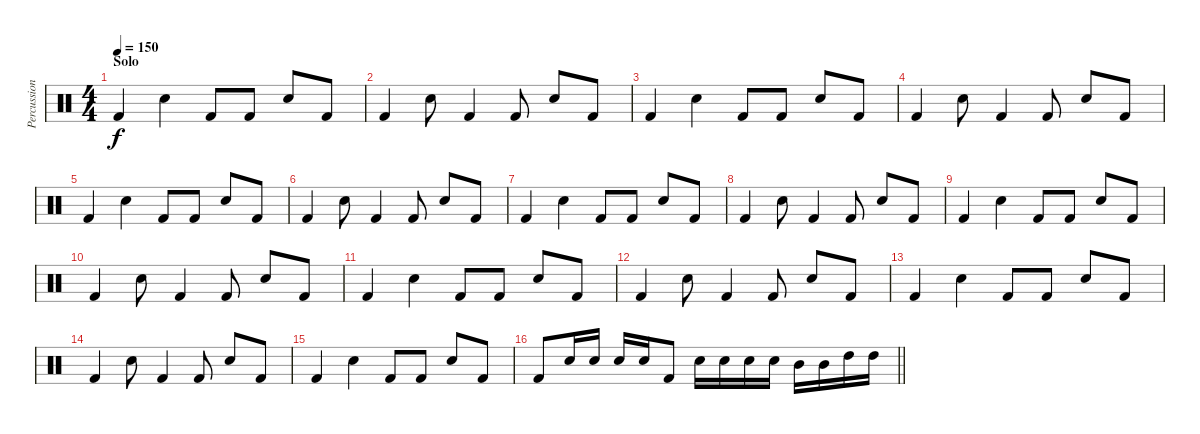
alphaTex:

\track ("Percussion" "Percussion") {instrument percussion}
\staff {score}
\articulation defaults
\ts (4 4)
\section ("" "Solo")
\tempo 150
\clef neutral
\ks c "Kick (hit) 2".4{dy f} "Snare (hit) 2".4 "Kick (hit) 2".8 "Kick (hit) 2".8 "Snare (hit) 2".8 "Kick (hit) 2".8
|
"Kick (hit) 2".4 "Snare (hit) 2".8 "Kick (hit) 2".4 "Kick (hit) 2".8 "Snare (hit) 2".8 "Kick (hit) 2".8 |
"Kick (hit) 2".4 "Snare (hit) 2".4 "Kick (hit) 2".8 "Kick (hit) 2".8 "Snare (hit) 2".8 "Kick (hit) 2".8 |
"Kick (hit) 2".4 "Snare (hit) 2".8 "Kick (hit) 2".4 "Kick (hit) 2".8 "Snare (hit) 2".8 "Kick (hit) 2".8 |
"Kick (hit) 2".4 "Snare (hit) 2".4 "Kick (hit) 2".8 "Kick (hit) 2".8 "Snare (hit) 2".8 "Kick (hit) 2".8 |
"Kick (hit) 2".4 "Snare (hit) 2".8 "Kick (hit) 2".4 "Kick (hit) 2".8 "Snare (hit) 2".8 "Kick (hit) 2".8 |
"Kick (hit) 2".4 "Snare (hit) 2".4 "Kick (hit) 2".8 "Kick (hit) 2".8 "Snare (hit) 2".8 "Kick (hit) 2".8 |
"Kick (hit) 2".4 "Snare (hit) 2".8 "Kick (hit) 2".4 "Kick (hit) 2".8 "Snare (hit) 2".8 "Kick (hit) 2".8 |
"Kick (hit) 2".4 "Snare (hit) 2".4 "Kick (hit) 2".8 "Kick (hit) 2".8 "Snare (hit) 2".8 "Kick (hit) 2".8 |
"Kick (hit) 2".4 "Snare (hit) 2".8 "Kick (hit) 2".4 "Kick (hit) 2".8 "Snare (hit) 2".8 "Kick (hit) 2".8 |
"Kick (hit) 2".4 "Snare (hit) 2".4 "Kick (hit) 2".8 "Kick (hit) 2".8 "Snare (hit) 2".8 "Kick (hit) 2".8 |
"Kick (hit) 2".4 "Snare (hit) 2".8 "Kick (hit) 2".4 "Kick (hit) 2".8 "Snare (hit) 2".8 "Kick (hit) 2".8 |
"Kick (hit) 2".4 "Snare (hit) 2".4 "Kick (hit) 2".8 "Kick (hit) 2".8 "Snare (hit) 2".8 "Kick (hit) 2".8 |
"Kick (hit) 2".4 "Snare (hit) 2".8 "Kick (hit) 2".4 "Kick (hit) 2".8 "Snare (hit) 2".8 "Kick (hit) 2".8 |
"Kick (hit) 2".4 "Snare (hit) 2".4 "Kick (hit) 2".8 "Kick (hit) 2".8 "Snare (hit) 2".8 "Kick (hit) 2".8 |
\barLineRight lightlight "Kick (hit) 2".8 "Snare (hit) 2".16 "Snare (hit) 2".16 "Snare (hit) 2".16 "Snare (hit) 2".16 "Kick (hit) 2".8 "Snare (hit) 2".16 "Snare (hit) 2".16 "Snare (hit) 2".16 "Snare (hit) 2".16 "Mid Tom (hit)".16 "Mid Tom (hit)".16 "High Tom (hit)".16 "High Tom (hit)".16
